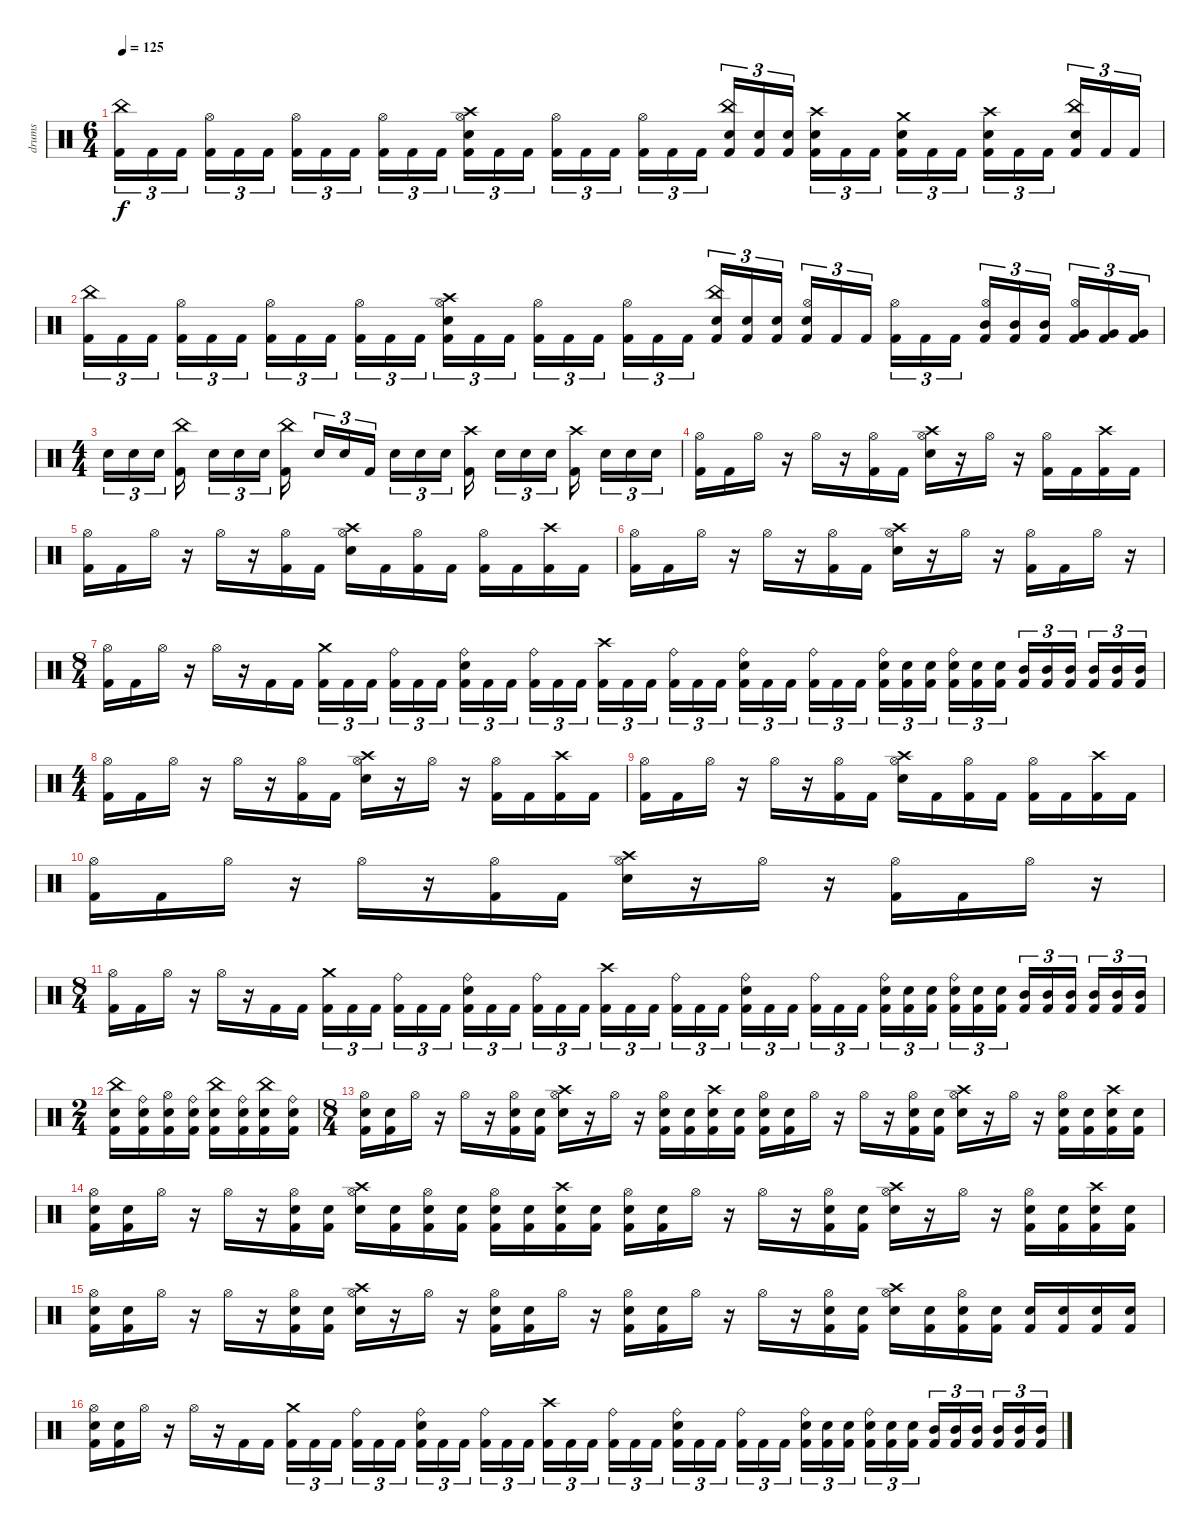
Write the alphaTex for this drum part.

\track (" drums" " drums") {mute instrument percussion}
\staff {score}
\articulation defaults
\ts (6 4)
\tempo 125
\clef neutral
\ks c
("Kick (hit) 2" "China (hit)").16{tu (3 2) dy f} "Kick (hit) 2".16{tu (3 2)} "Kick (hit) 2".16{tu (3 2) beam splitsecondary} ("Kick (hit) 2" "Hi-Hat (open)").16{tu (3 2)} "Kick (hit) 2".16{tu (3 2)} "Kick (hit) 2".16{tu (3 2) beam splitsecondary} ("Kick (hit) 2" "Hi-Hat (open)").16{tu (3 2)} "Kick (hit) 2".16{tu (3 2)} "Kick (hit) 2".16{tu (3 2) beam splitsecondary} ("Kick (hit) 2" "Hi-Hat (open)").16{tu (3 2)} "Kick (hit) 2".16{tu (3 2)} "Kick (hit) 2".16{tu (3 2) beam splitsecondary} ("Kick (hit) 2" "Electric Snare (hit)" "Hi-Hat (open)" "Crash high (hit)").16{tu (3 2)} "Kick (hit) 2".16{tu (3 2)} "Kick (hit) 2".16{tu (3 2) beam splitsecondary} ("Kick (hit) 2" "Hi-Hat (open)").16{tu (3 2)} "Kick (hit) 2".16{tu (3 2)} "Kick (hit) 2".16{tu (3 2)} ("Kick (hit) 2" "Hi-Hat (open)").16{tu (3 2)} "Kick (hit) 2".16{tu (3 2)} "Kick (hit) 2".16{tu (3 2) beam splitsecondary} ("Kick (hit) 2" "Electric Snare (hit)" "China (hit)").16{tu (3 2)} ("Kick (hit) 2" "Electric Snare (hit)").16{tu (3 2)} ("Kick (hit) 2" "Electric Snare (hit)").16{tu (3 2) beam splitsecondary} ("Kick (hit) 2" "Electric Snare (hit)" "Crash high (hit)").16{tu (3 2)} "Kick (hit) 2".16{tu (3 2)} "Kick (hit) 2".16{tu (3 2) beam splitsecondary} ("Kick (hit) 2" "Electric Snare (hit)" "Crash medium (hit)").16{tu (3 2)} "Kick (hit) 2".16{tu (3 2)} "Kick (hit) 2".16{tu (3 2) beam splitsecondary} ("Kick (hit) 2" "Electric Snare (hit)" "Crash high (hit)").16{tu (3 2)} "Kick (hit) 2".16{tu (3 2)} "Kick (hit) 2".16{tu (3 2) beam splitsecondary} ("Kick (hit) 2" "Electric Snare (hit)" "China (hit)").16{tu (3 2)} "Kick (hit) 2".16{tu (3 2)} "Kick (hit) 2".16{tu (3 2)} |
("Kick (hit) 2" "China (hit)").16{tu (3 2)} "Kick (hit) 2".16{tu (3 2)} "Kick (hit) 2".16{tu (3 2) beam splitsecondary} ("Kick (hit) 2" "Hi-Hat (open)").16{tu (3 2)} "Kick (hit) 2".16{tu (3 2)} "Kick (hit) 2".16{tu (3 2) beam splitsecondary} ("Kick (hit) 2" "Hi-Hat (open)").16{tu (3 2)} "Kick (hit) 2".16{tu (3 2)} "Kick (hit) 2".16{tu (3 2) beam splitsecondary} ("Kick (hit) 2" "Hi-Hat (open)").16{tu (3 2)} "Kick (hit) 2".16{tu (3 2)} "Kick (hit) 2".16{tu (3 2) beam splitsecondary} ("Kick (hit) 2" "Electric Snare (hit)" "Hi-Hat (open)" "Crash high (hit)").16{tu (3 2)} "Kick (hit) 2".16{tu (3 2)} "Kick (hit) 2".16{tu (3 2) beam splitsecondary} ("Kick (hit) 2" "Hi-Hat (open)").16{tu (3 2)} "Kick (hit) 2".16{tu (3 2)} "Kick (hit) 2".16{tu (3 2)} ("Kick (hit) 2" "Hi-Hat (open)").16{tu (3 2)} "Kick (hit) 2".16{tu (3 2)} "Kick (hit) 2".16{tu (3 2) beam splitsecondary} ("Kick (hit) 2" "Electric Snare (hit)" "China (hit)").16{tu (3 2)} ("Kick (hit) 2" "Electric Snare (hit)").16{tu (3 2)} ("Kick (hit) 2" "Electric Snare (hit)").16{tu (3 2) beam splitsecondary} ("Kick (hit) 2" "Electric Snare (hit)" "Hi-Hat (open)").16{tu (3 2)} "Kick (hit) 2".16{tu (3 2)} "Kick (hit) 2".16{tu (3 2) beam splitsecondary} ("Kick (hit) 2" "Hi-Hat (open)").16{tu (3 2)} "Kick (hit) 2".16{tu (3 2)} "Kick (hit) 2".16{tu (3 2) beam splitsecondary} ("Kick (hit) 2" "Mid Tom (hit)" "Hi-Hat (open)").16{tu (3 2)} ("Kick (hit) 2" "Mid Tom (hit)").16{tu (3 2)} ("Kick (hit) 2" "Mid Tom (hit)").16{tu (3 2) beam splitsecondary} ("Kick (hit) 2" "Very Low Tom (hit)" "Hi-Hat (open)").16{tu (3 2)} ("Kick (hit) 2" "Very Low Tom (hit)").16{tu (3 2)} ("Kick (hit) 2" "Very Low Tom (hit)").16{tu (3 2)} |
\ts (4 4)
"Electric Snare (hit)".16{tu (3 2)} "Electric Snare (hit)".16{tu (3 2)} "Electric Snare (hit)".16{tu (3 2) beam splitsecondary} ("Kick (hit) 2" "China (hit)").16{beam splitsecondary} "Electric Snare (hit)".16{tu (3 2)} "Electric Snare (hit)".16{tu (3 2)} "Electric Snare (hit)".16{tu (3 2) beam splitsecondary} ("Kick (hit) 2" "China (hit)").16{beam splitsecondary} "Electric Snare (hit)".16{tu (3 2)} "Electric Snare (hit)".16{tu (3 2)} "Kick (hit) 2".16{tu (3 2)} "Electric Snare (hit)".16{tu (3 2)} "Electric Snare (hit)".16{tu (3 2)} "Electric Snare (hit)".16{tu (3 2) beam splitsecondary} ("Kick (hit) 2" "Crash high (hit)").16{beam splitsecondary} "Electric Snare (hit)".16{tu (3 2)} "Electric Snare (hit)".16{tu (3 2)} "Electric Snare (hit)".16{tu (3 2) beam splitsecondary} ("Kick (hit) 2" "Crash high (hit)").16{beam splitsecondary} "Electric Snare (hit)".16{tu (3 2)} "Electric Snare (hit)".16{tu (3 2)} "Electric Snare (hit)".16{tu (3 2)} |
("Kick (hit) 2" "Hi-Hat (open)").16 "Kick (hit) 2".16 "Hi-Hat (open)".16 r.16 "Hi-Hat (open)".16 r.16 ("Kick (hit) 2" "Hi-Hat (open)").16 "Kick (hit) 2".16 ("Electric Snare (hit)" "Hi-Hat (open)" "Crash high (hit)").16 r.16 "Hi-Hat (open)".16 r.16 ("Kick (hit) 2" "Hi-Hat (open)").16 "Kick (hit) 2".16 ("Kick (hit) 2" "Crash high (hit)").16 "Kick (hit) 2".16 |
("Kick (hit) 2" "Hi-Hat (open)").16 "Kick (hit) 2".16 "Hi-Hat (open)".16 r.16 "Hi-Hat (open)".16 r.16 ("Kick (hit) 2" "Hi-Hat (open)").16 "Kick (hit) 2".16 ("Electric Snare (hit)" "Hi-Hat (open)" "Crash high (hit)").16 "Kick (hit) 2".16 ("Kick (hit) 2" "Hi-Hat (open)").16 "Kick (hit) 2".16 ("Kick (hit) 2" "Hi-Hat (open)").16 "Kick (hit) 2".16 ("Kick (hit) 2" "Crash high (hit)").16 "Kick (hit) 2".16 |
("Kick (hit) 2" "Hi-Hat (open)").16 "Kick (hit) 2".16 "Hi-Hat (open)".16 r.16 "Hi-Hat (open)".16 r.16 ("Kick (hit) 2" "Hi-Hat (open)").16 "Kick (hit) 2".16 ("Electric Snare (hit)" "Hi-Hat (open)" "Crash high (hit)").16 r.16 "Hi-Hat (open)".16 r.16 ("Kick (hit) 2" "Hi-Hat (open)").16 "Kick (hit) 2".16 "Hi-Hat (open)".16 r.16 |
\ts (8 4)
("Kick (hit) 2" "Hi-Hat (open)").16 "Kick (hit) 2".16 "Hi-Hat (open)".16 r.16 "Hi-Hat (open)".16 r.16 "Kick (hit) 2".16 "Kick (hit) 2".16 ("Kick (hit) 2" "Crash medium (hit)").16{tu (3 2)} "Kick (hit) 2".16{tu (3 2)} "Kick (hit) 2".16{tu (3 2) beam splitsecondary} ("Kick (hit) 2" "Ride (bell)").16{tu (3 2)} "Kick (hit) 2".16{tu (3 2)} "Kick (hit) 2".16{tu (3 2)} ("Kick (hit) 2" "Electric Snare (hit)" "Ride (bell)").16{tu (3 2)} "Kick (hit) 2".16{tu (3 2)} "Kick (hit) 2".16{tu (3 2) beam splitsecondary} ("Kick (hit) 2" "Ride (bell)").16{tu (3 2)} "Kick (hit) 2".16{tu (3 2)} "Kick (hit) 2".16{tu (3 2)} ("Kick (hit) 2" "Crash high (hit)").16{tu (3 2)} "Kick (hit) 2".16{tu (3 2)} "Kick (hit) 2".16{tu (3 2) beam splitsecondary} ("Kick (hit) 2" "Ride (bell)").16{tu (3 2)} "Kick (hit) 2".16{tu (3 2)} "Kick (hit) 2".16{tu (3 2)} ("Kick (hit) 2" "Electric Snare (hit)" "Ride (bell)").16{tu (3 2)} "Kick (hit) 2".16{tu (3 2)} "Kick (hit) 2".16{tu (3 2) beam splitsecondary} ("Kick (hit) 2" "Ride (bell)").16{tu (3 2)} "Kick (hit) 2".16{tu (3 2)} "Kick (hit) 2".16{tu (3 2)} ("Kick (hit) 2" "Electric Snare (hit)" "Ride (bell)").16{tu (3 2)} ("Kick (hit) 2" "Electric Snare (hit)").16{tu (3 2)} ("Kick (hit) 2" "Electric Snare (hit)").16{tu (3 2) beam splitsecondary} ("Kick (hit) 2" "Electric Snare (hit)" "Ride (bell)").16{tu (3 2)} ("Kick (hit) 2" "Electric Snare (hit)").16{tu (3 2)} ("Kick (hit) 2" "Electric Snare (hit)").16{tu (3 2)} ("Kick (hit) 2" "Mid Tom (hit)").16{tu (3 2)} ("Kick (hit) 2" "Mid Tom (hit)").16{tu (3 2)} ("Kick (hit) 2" "Mid Tom (hit)").16{tu (3 2) beam splitsecondary} ("Kick (hit) 2" "Mid Tom (hit)").16{tu (3 2)} ("Kick (hit) 2" "Mid Tom (hit)").16{tu (3 2)} ("Kick (hit) 2" "Mid Tom (hit)").16{tu (3 2)} |
\ts (4 4)
("Kick (hit) 2" "Hi-Hat (open)").16 "Kick (hit) 2".16 "Hi-Hat (open)".16 r.16 "Hi-Hat (open)".16 r.16 ("Kick (hit) 2" "Hi-Hat (open)").16 "Kick (hit) 2".16 ("Electric Snare (hit)" "Hi-Hat (open)" "Crash high (hit)").16 r.16 "Hi-Hat (open)".16 r.16 ("Kick (hit) 2" "Hi-Hat (open)").16 "Kick (hit) 2".16 ("Kick (hit) 2" "Crash high (hit)").16 "Kick (hit) 2".16 |
("Kick (hit) 2" "Hi-Hat (open)").16 "Kick (hit) 2".16 "Hi-Hat (open)".16 r.16 "Hi-Hat (open)".16 r.16 ("Kick (hit) 2" "Hi-Hat (open)").16 "Kick (hit) 2".16 ("Electric Snare (hit)" "Hi-Hat (open)" "Crash high (hit)").16 "Kick (hit) 2".16 ("Kick (hit) 2" "Hi-Hat (open)").16 "Kick (hit) 2".16 ("Kick (hit) 2" "Hi-Hat (open)").16 "Kick (hit) 2".16 ("Kick (hit) 2" "Crash high (hit)").16 "Kick (hit) 2".16 |
("Kick (hit) 2" "Hi-Hat (open)").16 "Kick (hit) 2".16 "Hi-Hat (open)".16 r.16 "Hi-Hat (open)".16 r.16 ("Kick (hit) 2" "Hi-Hat (open)").16 "Kick (hit) 2".16 ("Electric Snare (hit)" "Hi-Hat (open)" "Crash high (hit)").16 r.16 "Hi-Hat (open)".16 r.16 ("Kick (hit) 2" "Hi-Hat (open)").16 "Kick (hit) 2".16 "Hi-Hat (open)".16 r.16 |
\ts (8 4)
("Kick (hit) 2" "Hi-Hat (open)").16 "Kick (hit) 2".16 "Hi-Hat (open)".16 r.16 "Hi-Hat (open)".16 r.16 "Kick (hit) 2".16 "Kick (hit) 2".16 ("Kick (hit) 2" "Crash medium (hit)").16{tu (3 2)} "Kick (hit) 2".16{tu (3 2)} "Kick (hit) 2".16{tu (3 2) beam splitsecondary} ("Kick (hit) 2" "Ride (bell)").16{tu (3 2)} "Kick (hit) 2".16{tu (3 2)} "Kick (hit) 2".16{tu (3 2)} ("Kick (hit) 2" "Electric Snare (hit)" "Ride (bell)").16{tu (3 2)} "Kick (hit) 2".16{tu (3 2)} "Kick (hit) 2".16{tu (3 2) beam splitsecondary} ("Kick (hit) 2" "Ride (bell)").16{tu (3 2)} "Kick (hit) 2".16{tu (3 2)} "Kick (hit) 2".16{tu (3 2)} ("Kick (hit) 2" "Crash high (hit)").16{tu (3 2)} "Kick (hit) 2".16{tu (3 2)} "Kick (hit) 2".16{tu (3 2) beam splitsecondary} ("Kick (hit) 2" "Ride (bell)").16{tu (3 2)} "Kick (hit) 2".16{tu (3 2)} "Kick (hit) 2".16{tu (3 2)} ("Kick (hit) 2" "Electric Snare (hit)" "Ride (bell)").16{tu (3 2)} "Kick (hit) 2".16{tu (3 2)} "Kick (hit) 2".16{tu (3 2) beam splitsecondary} ("Kick (hit) 2" "Ride (bell)").16{tu (3 2)} "Kick (hit) 2".16{tu (3 2)} "Kick (hit) 2".16{tu (3 2)} ("Kick (hit) 2" "Electric Snare (hit)" "Ride (bell)").16{tu (3 2)} ("Kick (hit) 2" "Electric Snare (hit)").16{tu (3 2)} ("Kick (hit) 2" "Electric Snare (hit)").16{tu (3 2) beam splitsecondary} ("Kick (hit) 2" "Electric Snare (hit)" "Ride (bell)").16{tu (3 2)} ("Kick (hit) 2" "Electric Snare (hit)").16{tu (3 2)} ("Kick (hit) 2" "Electric Snare (hit)").16{tu (3 2)} ("Kick (hit) 2" "Mid Tom (hit)").16{tu (3 2)} ("Kick (hit) 2" "Mid Tom (hit)").16{tu (3 2)} ("Kick (hit) 2" "Mid Tom (hit)").16{tu (3 2) beam splitsecondary} ("Kick (hit) 2" "Mid Tom (hit)").16{tu (3 2)} ("Kick (hit) 2" "Mid Tom (hit)").16{tu (3 2)} ("Kick (hit) 2" "Mid Tom (hit)").16{tu (3 2)} |
\ts (2 4)
("Kick (hit) 2" "Electric Snare (hit)" "China (hit)").16 ("Kick (hit) 2" "Electric Snare (hit)" "Ride (bell)").16 ("Kick (hit) 2" "Electric Snare (hit)" "Hi-Hat (open)").16 ("Kick (hit) 2" "Electric Snare (hit)" "Ride (bell)").16 ("Kick (hit) 2" "Electric Snare (hit)" "China (hit)").16 ("Kick (hit) 2" "Electric Snare (hit)" "Ride (bell)").16 ("Kick (hit) 2" "Electric Snare (hit)" "China (hit)").16 ("Kick (hit) 2" "Electric Snare (hit)" "Ride (bell)").16 |
\ts (8 4)
("Kick (hit) 2" "Hi-Hat (open)" "Electric Snare (hit)").16 ("Kick (hit) 2" "Electric Snare (hit)").16 "Hi-Hat (open)".16 r.16 "Hi-Hat (open)".16 r.16 ("Kick (hit) 2" "Hi-Hat (open)" "Electric Snare (hit)").16 ("Kick (hit) 2" "Electric Snare (hit)").16 ("Electric Snare (hit)" "Hi-Hat (open)" "Crash high (hit)").16 r.16 "Hi-Hat (open)".16 r.16 ("Kick (hit) 2" "Hi-Hat (open)" "Electric Snare (hit)").16 ("Kick (hit) 2" "Electric Snare (hit)").16 ("Kick (hit) 2" "Crash high (hit)" "Electric Snare (hit)").16 ("Kick (hit) 2" "Electric Snare (hit)").16 ("Kick (hit) 2" "Hi-Hat (open)" "Electric Snare (hit)").16 ("Kick (hit) 2" "Electric Snare (hit)").16 "Hi-Hat (open)".16 r.16 "Hi-Hat (open)".16 r.16 ("Kick (hit) 2" "Hi-Hat (open)" "Electric Snare (hit)").16 ("Kick (hit) 2" "Electric Snare (hit)").16 ("Electric Snare (hit)" "Hi-Hat (open)" "Crash high (hit)").16 r.16 "Hi-Hat (open)".16 r.16 ("Kick (hit) 2" "Hi-Hat (open)" "Electric Snare (hit)").16 ("Kick (hit) 2" "Electric Snare (hit)").16 ("Kick (hit) 2" "Crash high (hit)" "Electric Snare (hit)").16 ("Kick (hit) 2" "Electric Snare (hit)").16 |
("Kick (hit) 2" "Hi-Hat (open)" "Electric Snare (hit)").16 ("Kick (hit) 2" "Electric Snare (hit)").16 "Hi-Hat (open)".16 r.16 "Hi-Hat (open)".16 r.16 ("Kick (hit) 2" "Hi-Hat (open)" "Electric Snare (hit)").16 ("Kick (hit) 2" "Electric Snare (hit)").16 ("Electric Snare (hit)" "Hi-Hat (open)" "Crash high (hit)").16 ("Kick (hit) 2" "Electric Snare (hit)").16 ("Kick (hit) 2" "Hi-Hat (open)" "Electric Snare (hit)").16 ("Kick (hit) 2" "Electric Snare (hit)").16 ("Kick (hit) 2" "Hi-Hat (open)" "Electric Snare (hit)").16 ("Kick (hit) 2" "Electric Snare (hit)").16 ("Kick (hit) 2" "Crash high (hit)" "Electric Snare (hit)").16 ("Kick (hit) 2" "Electric Snare (hit)").16 ("Kick (hit) 2" "Hi-Hat (open)" "Electric Snare (hit)").16 ("Kick (hit) 2" "Electric Snare (hit)").16 "Hi-Hat (open)".16 r.16 "Hi-Hat (open)".16 r.16 ("Kick (hit) 2" "Hi-Hat (open)" "Electric Snare (hit)").16 ("Kick (hit) 2" "Electric Snare (hit)").16 ("Electric Snare (hit)" "Hi-Hat (open)" "Crash high (hit)").16 r.16 "Hi-Hat (open)".16 r.16 ("Kick (hit) 2" "Hi-Hat (open)" "Electric Snare (hit)").16 ("Kick (hit) 2" "Electric Snare (hit)").16 ("Kick (hit) 2" "Crash high (hit)" "Electric Snare (hit)").16 ("Kick (hit) 2" "Electric Snare (hit)").16 |
("Kick (hit) 2" "Hi-Hat (open)" "Electric Snare (hit)").16 ("Kick (hit) 2" "Electric Snare (hit)").16 "Hi-Hat (open)".16 r.16 "Hi-Hat (open)".16 r.16 ("Kick (hit) 2" "Hi-Hat (open)" "Electric Snare (hit)").16 ("Kick (hit) 2" "Electric Snare (hit)").16 ("Electric Snare (hit)" "Hi-Hat (open)" "Crash high (hit)").16 r.16 "Hi-Hat (open)".16 r.16 ("Kick (hit) 2" "Hi-Hat (open)" "Electric Snare (hit)").16 ("Kick (hit) 2" "Electric Snare (hit)").16 "Hi-Hat (open)".16 r.16 ("Kick (hit) 2" "Hi-Hat (open)" "Electric Snare (hit)").16 ("Kick (hit) 2" "Electric Snare (hit)").16 "Hi-Hat (open)".16 r.16 "Hi-Hat (open)".16 r.16 ("Kick (hit) 2" "Hi-Hat (open)" "Electric Snare (hit)").16 ("Kick (hit) 2" "Electric Snare (hit)").16 ("Electric Snare (hit)" "Hi-Hat (open)" "Crash high (hit)").16 ("Kick (hit) 2" "Electric Snare (hit)").16 ("Kick (hit) 2" "Hi-Hat (open)" "Electric Snare (hit)").16 ("Kick (hit) 2" "Electric Snare (hit)").16 ("Kick (hit) 2" "Electric Snare (hit)").16 ("Kick (hit) 2" "Electric Snare (hit)").16 ("Kick (hit) 2" "Electric Snare (hit)").16 ("Kick (hit) 2" "Electric Snare (hit)").16 |
("Kick (hit) 2" "Hi-Hat (open)" "Electric Snare (hit)").16 ("Kick (hit) 2" "Electric Snare (hit)").16 "Hi-Hat (open)".16 r.16 "Hi-Hat (open)".16 r.16 "Kick (hit) 2".16 "Kick (hit) 2".16 ("Kick (hit) 2" "Crash medium (hit)").16{tu (3 2)} "Kick (hit) 2".16{tu (3 2)} "Kick (hit) 2".16{tu (3 2) beam splitsecondary} ("Kick (hit) 2" "Ride (bell)").16{tu (3 2)} "Kick (hit) 2".16{tu (3 2)} "Kick (hit) 2".16{tu (3 2)} ("Kick (hit) 2" "Electric Snare (hit)" "Ride (bell)").16{tu (3 2)} "Kick (hit) 2".16{tu (3 2)} "Kick (hit) 2".16{tu (3 2) beam splitsecondary} ("Kick (hit) 2" "Ride (bell)").16{tu (3 2)} "Kick (hit) 2".16{tu (3 2)} "Kick (hit) 2".16{tu (3 2)} ("Kick (hit) 2" "Crash high (hit)").16{tu (3 2)} "Kick (hit) 2".16{tu (3 2)} "Kick (hit) 2".16{tu (3 2) beam splitsecondary} ("Kick (hit) 2" "Ride (bell)").16{tu (3 2)} "Kick (hit) 2".16{tu (3 2)} "Kick (hit) 2".16{tu (3 2)} ("Kick (hit) 2" "Electric Snare (hit)" "Ride (bell)").16{tu (3 2)} "Kick (hit) 2".16{tu (3 2)} "Kick (hit) 2".16{tu (3 2) beam splitsecondary} ("Kick (hit) 2" "Ride (bell)").16{tu (3 2)} "Kick (hit) 2".16{tu (3 2)} "Kick (hit) 2".16{tu (3 2)} ("Kick (hit) 2" "Electric Snare (hit)" "Ride (bell)").16{tu (3 2)} ("Kick (hit) 2" "Electric Snare (hit)").16{tu (3 2)} ("Kick (hit) 2" "Electric Snare (hit)").16{tu (3 2) beam splitsecondary} ("Kick (hit) 2" "Electric Snare (hit)" "Ride (bell)").16{tu (3 2)} ("Kick (hit) 2" "Electric Snare (hit)").16{tu (3 2)} ("Kick (hit) 2" "Electric Snare (hit)").16{tu (3 2)} ("Kick (hit) 2" "Mid Tom (hit)").16{tu (3 2)} ("Kick (hit) 2" "Mid Tom (hit)").16{tu (3 2)} ("Kick (hit) 2" "Mid Tom (hit)").16{tu (3 2) beam splitsecondary} ("Kick (hit) 2" "Mid Tom (hit)").16{tu (3 2)} ("Kick (hit) 2" "Mid Tom (hit)").16{tu (3 2)} ("Kick (hit) 2" "Mid Tom (hit)").16{tu (3 2)}
